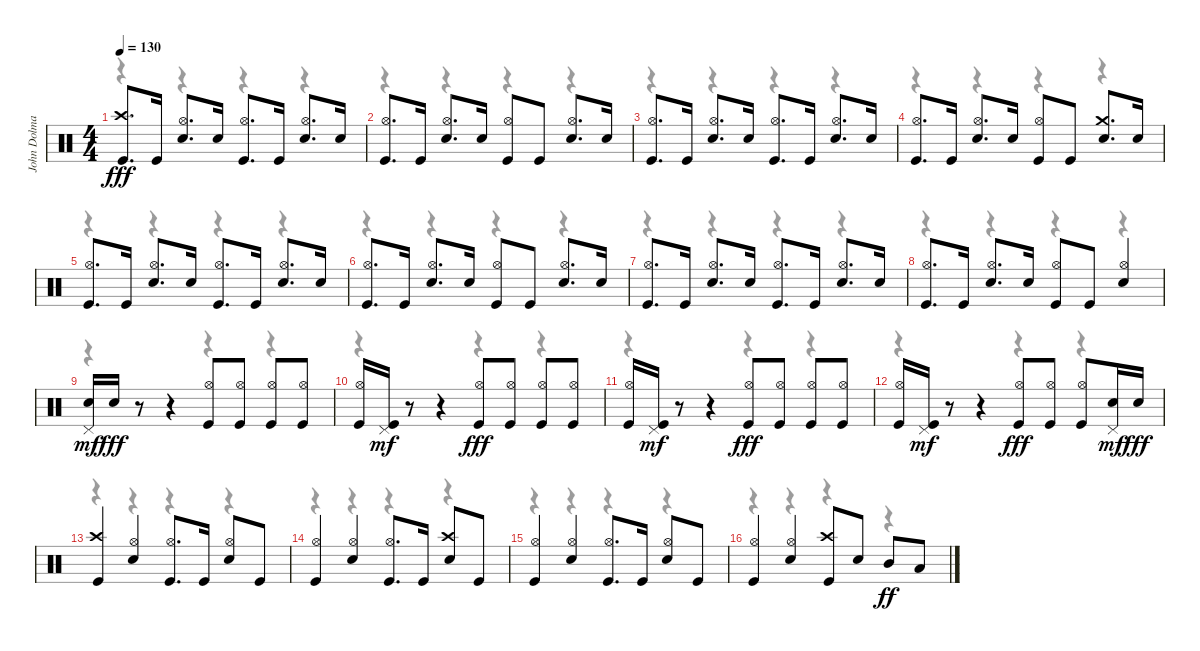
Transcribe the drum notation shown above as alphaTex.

\track ("John Dolmayan" "John Dolma") {instrument percussion}
\staff {score}
\articulation defaults
\voice
\ts (4 4)
\tempo 130
\clef neutral
\ks c
("Crash high (hit)" "Kick (hit)").8{d dy fff} "Kick (hit)".16 ("Hi-Hat (open)" "Snare (hit) 2").8{d} "Snare (hit) 2".16 ("Hi-Hat (open)" "Kick (hit)").8{d} "Kick (hit)".16 ("Hi-Hat (open)" "Snare (hit) 2").8{d} "Snare (hit) 2".16 |
("Hi-Hat (open)" "Kick (hit)").8{d} "Kick (hit)".16 ("Hi-Hat (open)" "Snare (hit) 2").8{d} "Snare (hit) 2".16 ("Hi-Hat (open)" "Kick (hit)").8 "Kick (hit)".8 ("Hi-Hat (open)" "Snare (hit) 2").8{d} "Snare (hit) 2".16 |
("Hi-Hat (open)" "Kick (hit)").8{d} "Kick (hit)".16 ("Hi-Hat (open)" "Snare (hit) 2").8{d} "Snare (hit) 2".16 ("Hi-Hat (open)" "Kick (hit)").8{d} "Kick (hit)".16 ("Hi-Hat (open)" "Snare (hit) 2").8{d} "Snare (hit) 2".16 |
("Hi-Hat (open)" "Kick (hit)").8{d} "Kick (hit)".16 ("Hi-Hat (open)" "Snare (hit) 2").8{d} "Snare (hit) 2".16 ("Hi-Hat (open)" "Kick (hit)").8 "Kick (hit)".8 ("Crash medium (hit)" "Snare (hit) 2").8{d} "Snare (hit) 2".16 |
("Hi-Hat (open)" "Kick (hit)").8{d} "Kick (hit)".16 ("Hi-Hat (open)" "Snare (hit) 2").8{d} "Snare (hit) 2".16 ("Hi-Hat (open)" "Kick (hit)").8{d} "Kick (hit)".16 ("Hi-Hat (open)" "Snare (hit) 2").8{d} "Snare (hit) 2".16 |
("Hi-Hat (open)" "Kick (hit)").8{d} "Kick (hit)".16 ("Hi-Hat (open)" "Snare (hit) 2").8{d} "Snare (hit) 2".16 ("Hi-Hat (open)" "Kick (hit)").8 "Kick (hit)".8 ("Hi-Hat (open)" "Snare (hit) 2").8{d} "Snare (hit) 2".16 |
("Hi-Hat (open)" "Kick (hit)").8{d} "Kick (hit)".16 ("Hi-Hat (open)" "Snare (hit) 2").8{d} "Snare (hit) 2".16 ("Hi-Hat (open)" "Kick (hit)").8{d} "Kick (hit)".16 ("Hi-Hat (open)" "Snare (hit) 2").8{d} "Snare (hit) 2".16 |
("Hi-Hat (open)" "Kick (hit)").8{d} "Kick (hit)".16 ("Hi-Hat (open)" "Snare (hit) 2").8{d} "Snare (hit) 2".16 ("Hi-Hat (open)" "Kick (hit)").8 "Kick (hit)".8 ("Hi-Hat (open)" "Snare (hit) 2").4 |
("Snare (hit) 2" "Pedal Hi-Hat (hit)").16{dy mf} "Snare (hit) 2".16{dy fff} r.8 r.4 ("Hi-Hat (open)" "Kick (hit)").8 ("Hi-Hat (open)" "Kick (hit)").8 ("Hi-Hat (open)" "Kick (hit)").8 ("Hi-Hat (open)" "Kick (hit)").8 |
("Hi-Hat (open)" "Kick (hit)").16 ("Kick (hit)" "Pedal Hi-Hat (hit)").16{dy mf} r.8 r.4 ("Hi-Hat (open)" "Kick (hit)").8{dy fff} ("Hi-Hat (open)" "Kick (hit)").8 ("Hi-Hat (open)" "Kick (hit)").8 ("Hi-Hat (open)" "Kick (hit)").8 |
("Hi-Hat (open)" "Kick (hit)").16 ("Kick (hit)" "Pedal Hi-Hat (hit)").16{dy mf} r.8 r.4 ("Hi-Hat (open)" "Kick (hit)").8{dy fff} ("Hi-Hat (open)" "Kick (hit)").8 ("Hi-Hat (open)" "Kick (hit)").8 ("Hi-Hat (open)" "Kick (hit)").8 |
("Hi-Hat (open)" "Kick (hit)").16 ("Kick (hit)" "Pedal Hi-Hat (hit)").16{dy mf} r.8 r.4 ("Hi-Hat (open)" "Kick (hit)").8{dy fff} ("Hi-Hat (open)" "Kick (hit)").8 ("Hi-Hat (open)" "Kick (hit)").8 ("Snare (hit) 2" "Pedal Hi-Hat (hit)").16{dy mf} "Snare (hit) 2".16{dy fff} |
("Crash high (hit)" "Kick (hit)").4 ("Hi-Hat (open)" "Snare (hit) 2").4 ("Hi-Hat (open)" "Kick (hit)").8{d} "Kick (hit)".16 ("Hi-Hat (open)" "Snare (hit) 2").8 "Kick (hit)".8 |
("Hi-Hat (open)" "Kick (hit)").4 ("Hi-Hat (open)" "Snare (hit) 2").4 ("Hi-Hat (open)" "Kick (hit)").8{d} "Kick (hit)".16 ("Crash high (hit)" "Snare (hit) 2").8 "Kick (hit)".8 |
("Hi-Hat (open)" "Kick (hit)").4 ("Hi-Hat (open)" "Snare (hit) 2").4 ("Hi-Hat (open)" "Kick (hit)").8{d} "Kick (hit)".16 ("Hi-Hat (open)" "Snare (hit) 2").8 "Kick (hit)".8 |
("Hi-Hat (open)" "Kick (hit)").4 ("Hi-Hat (open)" "Snare (hit) 2").4 ("Crash high (hit)" "Kick (hit)").8 "Snare (hit) 2".8 "Mid Tom (hit)".8{dy ff} "Low Tom (hit)".8
\voice
\clef neutral
\ottava regular
\simile none
\ks c
r.4{dy f} r.4 r.4 r.4 |
r.4 r.4 r.4 r.4 |
r.4 r.4 r.4 r.4 |
r.4 r.4 r.4 r.4 |
r.4 r.4 r.4 r.4 |
r.4 r.4 r.4 r.4 |
r.4 r.4 r.4 r.4 |
r.4 r.4 r.4 r.4 |
r.4 r.4 r.4 r.4 |
r.4 r.4 r.4 r.4 |
r.4 r.4 r.4 r.4 |
r.4 r.4 r.4 r.4 |
r.4 r.4 r.4 r.4 |
r.4 r.4 r.4 r.4 |
r.4 r.4 r.4 r.4 |
r.4 r.4 r.4 r.4
